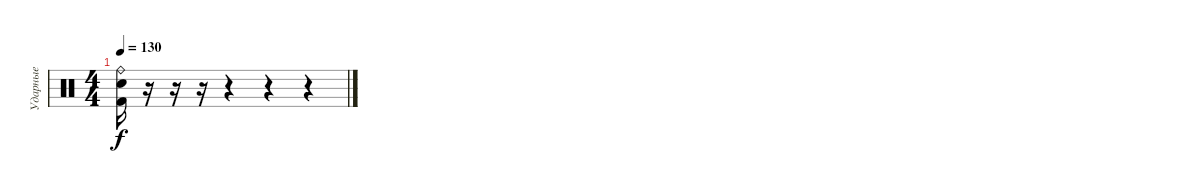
\track ("Ударные" "Ударные") {instrument percussion}
\staff {score}
\articulation defaults
\ts (4 4)
\tempo 130
\clef neutral
\ks c
("Ride (bell)" "Electric Snare (hit)" "Kick (hit) 2").16{dy f} r.16 r.16 r.16 r.4 r.4 r.4
